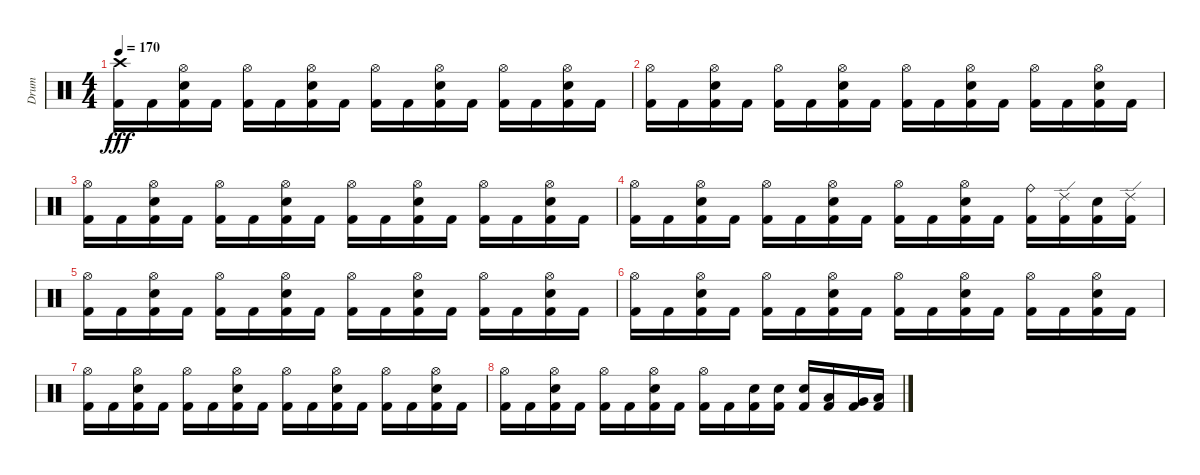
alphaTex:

\track ("Drum" "Drum") {instrument percussion}
\staff {score}
\articulation defaults
\ts (4 4)
\tempo 170
\clef neutral
\ks c
("Crash high (hit)" "Kick (hit) 2").16{dy fff} "Kick (hit) 2".16 ("Hi-Hat (open)" "Electric Snare (hit)" "Kick (hit) 2").16 "Kick (hit) 2".16 ("Hi-Hat (open)" "Kick (hit) 2").16 "Kick (hit) 2".16 ("Hi-Hat (open)" "Electric Snare (hit)" "Kick (hit) 2").16 "Kick (hit) 2".16 ("Hi-Hat (open)" "Kick (hit) 2").16 "Kick (hit) 2".16 ("Hi-Hat (open)" "Electric Snare (hit)" "Kick (hit) 2").16 "Kick (hit) 2".16 ("Hi-Hat (open)" "Kick (hit) 2").16 "Kick (hit) 2".16 ("Hi-Hat (open)" "Electric Snare (hit)" "Kick (hit) 2").16 "Kick (hit) 2".16 |
("Hi-Hat (open)" "Kick (hit) 2").16 "Kick (hit) 2".16 ("Hi-Hat (open)" "Electric Snare (hit)" "Kick (hit) 2").16 "Kick (hit) 2".16 ("Hi-Hat (open)" "Kick (hit) 2").16 "Kick (hit) 2".16 ("Hi-Hat (open)" "Electric Snare (hit)" "Kick (hit) 2").16 "Kick (hit) 2".16 ("Hi-Hat (open)" "Kick (hit) 2").16 "Kick (hit) 2".16 ("Hi-Hat (open)" "Electric Snare (hit)" "Kick (hit) 2").16 "Kick (hit) 2".16 ("Hi-Hat (open)" "Kick (hit) 2").16 "Kick (hit) 2".16 ("Hi-Hat (open)" "Electric Snare (hit)" "Kick (hit) 2").16 "Kick (hit) 2".16 |
("Hi-Hat (open)" "Kick (hit) 2").16 "Kick (hit) 2".16 ("Hi-Hat (open)" "Electric Snare (hit)" "Kick (hit) 2").16 "Kick (hit) 2".16 ("Hi-Hat (open)" "Kick (hit) 2").16 "Kick (hit) 2".16 ("Hi-Hat (open)" "Electric Snare (hit)" "Kick (hit) 2").16 "Kick (hit) 2".16 ("Hi-Hat (open)" "Kick (hit) 2").16 "Kick (hit) 2".16 ("Hi-Hat (open)" "Electric Snare (hit)" "Kick (hit) 2").16 "Kick (hit) 2".16 ("Hi-Hat (open)" "Kick (hit) 2").16 "Kick (hit) 2".16 ("Hi-Hat (open)" "Electric Snare (hit)" "Kick (hit) 2").16 "Kick (hit) 2".16 |
("Hi-Hat (open)" "Kick (hit) 2").16 "Kick (hit) 2".16 ("Hi-Hat (open)" "Electric Snare (hit)" "Kick (hit) 2").16 "Kick (hit) 2".16 ("Hi-Hat (open)" "Kick (hit) 2").16 "Kick (hit) 2".16 ("Hi-Hat (open)" "Electric Snare (hit)" "Kick (hit) 2").16 "Kick (hit) 2".16 ("Hi-Hat (open)" "Kick (hit) 2").16 "Kick (hit) 2".16 ("Hi-Hat (open)" "Electric Snare (hit)" "Kick (hit) 2").16 "Kick (hit) 2".16 ("Ride (bell)" "Kick (hit) 2").16 ("Ride (edge) 2" "Kick (hit) 2").16 ("Electric Snare (hit)" "Kick (hit) 2").16 ("Ride (edge) 2" "Kick (hit) 2").16 |
("Hi-Hat (open)" "Kick (hit) 2").16 "Kick (hit) 2".16 ("Hi-Hat (open)" "Electric Snare (hit)" "Kick (hit) 2").16 "Kick (hit) 2".16 ("Hi-Hat (open)" "Kick (hit) 2").16 "Kick (hit) 2".16 ("Hi-Hat (open)" "Electric Snare (hit)" "Kick (hit) 2").16 "Kick (hit) 2".16 ("Hi-Hat (open)" "Kick (hit) 2").16 "Kick (hit) 2".16 ("Hi-Hat (open)" "Electric Snare (hit)" "Kick (hit) 2").16 "Kick (hit) 2".16 ("Hi-Hat (open)" "Kick (hit) 2").16 "Kick (hit) 2".16 ("Hi-Hat (open)" "Electric Snare (hit)" "Kick (hit) 2").16 "Kick (hit) 2".16 |
("Hi-Hat (open)" "Kick (hit) 2").16 "Kick (hit) 2".16 ("Hi-Hat (open)" "Electric Snare (hit)" "Kick (hit) 2").16 "Kick (hit) 2".16 ("Hi-Hat (open)" "Kick (hit) 2").16 "Kick (hit) 2".16 ("Hi-Hat (open)" "Electric Snare (hit)" "Kick (hit) 2").16 "Kick (hit) 2".16 ("Hi-Hat (open)" "Kick (hit) 2").16 "Kick (hit) 2".16 ("Hi-Hat (open)" "Electric Snare (hit)" "Kick (hit) 2").16 "Kick (hit) 2".16 ("Hi-Hat (open)" "Kick (hit) 2").16 "Kick (hit) 2".16 ("Hi-Hat (open)" "Electric Snare (hit)" "Kick (hit) 2").16 "Kick (hit) 2".16 |
("Hi-Hat (open)" "Kick (hit) 2").16 "Kick (hit) 2".16 ("Hi-Hat (open)" "Electric Snare (hit)" "Kick (hit) 2").16 "Kick (hit) 2".16 ("Hi-Hat (open)" "Kick (hit) 2").16 "Kick (hit) 2".16 ("Hi-Hat (open)" "Electric Snare (hit)" "Kick (hit) 2").16 "Kick (hit) 2".16 ("Hi-Hat (open)" "Kick (hit) 2").16 "Kick (hit) 2".16 ("Hi-Hat (open)" "Electric Snare (hit)" "Kick (hit) 2").16 "Kick (hit) 2".16 ("Hi-Hat (open)" "Kick (hit) 2").16 "Kick (hit) 2".16 ("Hi-Hat (open)" "Electric Snare (hit)" "Kick (hit) 2").16 "Kick (hit) 2".16 |
("Hi-Hat (open)" "Kick (hit) 2").16 "Kick (hit) 2".16 ("Hi-Hat (open)" "Electric Snare (hit)" "Kick (hit) 2").16 "Kick (hit) 2".16 ("Hi-Hat (open)" "Kick (hit) 2").16 "Kick (hit) 2".16 ("Hi-Hat (open)" "Electric Snare (hit)" "Kick (hit) 2").16 "Kick (hit) 2".16 ("Hi-Hat (open)" "Kick (hit) 2").16 "Kick (hit) 2".16 ("Electric Snare (hit)" "Kick (hit) 2").16 ("Electric Snare (hit)" "Kick (hit) 2").16 ("Electric Snare (hit)" "Kick (hit) 2").16 ("Low Tom (hit)" "Kick (hit) 2").16 ("Very Low Tom (hit)" "Kick (hit) 2").16 ("Low Floor Tom (hit)" "Kick (hit) 2").16
